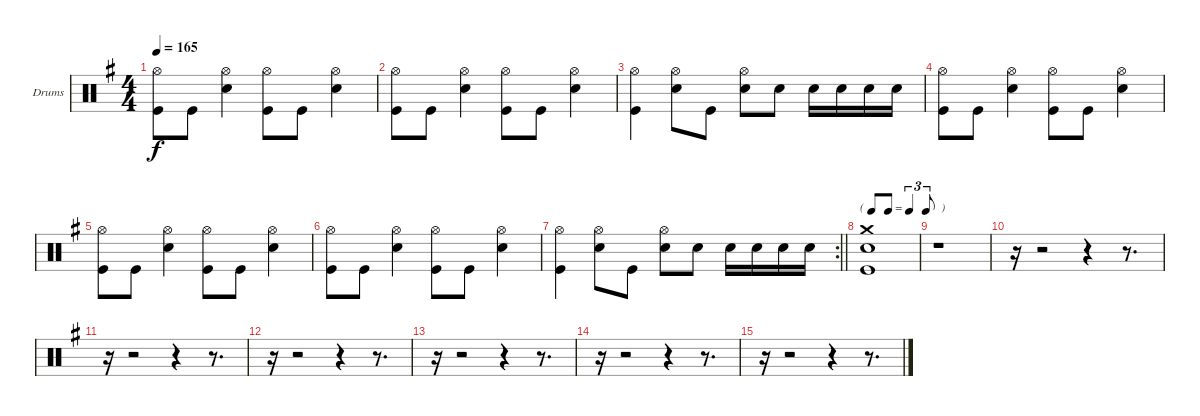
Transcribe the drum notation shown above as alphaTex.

\bracketExtendMode groupsimilarinstruments
\firstSystemTrackNameOrientation horizontal
\otherSystemsTrackNameOrientation horizontal
\track ("Drumkit" "Drums") {instrument percussion}
\staff {score}
\articulation defaults
\ts (4 4)
\tempo 165
\clef neutral
\ks eminor
("Hi-Hat (open)" "Kick (hit)").8{dy f} "Kick (hit)".8 ("Hi-Hat (open)" "Snare (hit) 2").4 ("Hi-Hat (open)" "Kick (hit)").8 "Kick (hit)".8 ("Hi-Hat (open)" "Snare (hit) 2").4 |
("Hi-Hat (open)" "Kick (hit)").8 "Kick (hit)".8 ("Hi-Hat (open)" "Snare (hit) 2").4 ("Hi-Hat (open)" "Kick (hit)").8 "Kick (hit)".8 ("Hi-Hat (open)" "Snare (hit) 2").4 |
("Hi-Hat (open)" "Kick (hit)").4 ("Hi-Hat (open)" "Snare (hit) 2").8 "Kick (hit)".8 ("Hi-Hat (open)" "Snare (hit) 2").8 "Snare (hit) 2".8 "Snare (hit) 2".16 "Snare (hit) 2".16 "Snare (hit) 2".16 "Snare (hit) 2".16 |
("Hi-Hat (open)" "Kick (hit)").8 "Kick (hit)".8 ("Hi-Hat (open)" "Snare (hit) 2").4 ("Hi-Hat (open)" "Kick (hit)").8 "Kick (hit)".8 ("Hi-Hat (open)" "Snare (hit) 2").4 |
("Hi-Hat (open)" "Kick (hit)").8 "Kick (hit)".8 ("Hi-Hat (open)" "Snare (hit) 2").4 ("Hi-Hat (open)" "Kick (hit)").8 "Kick (hit)".8 ("Hi-Hat (open)" "Snare (hit) 2").4 |
("Hi-Hat (open)" "Kick (hit)").8 "Kick (hit)".8 ("Hi-Hat (open)" "Snare (hit) 2").4 ("Hi-Hat (open)" "Kick (hit)").8 "Kick (hit)".8 ("Hi-Hat (open)" "Snare (hit) 2").4 |
\rc 2
\barLineRight lightlight
("Hi-Hat (open)" "Kick (hit)").4 ("Hi-Hat (open)" "Snare (hit) 2").8 "Kick (hit)".8 ("Hi-Hat (open)" "Snare (hit) 2").8 "Snare (hit) 2".8 "Snare (hit) 2".16 "Snare (hit) 2".16 "Snare (hit) 2".16 "Snare (hit) 2".16 |
\tf triplet8th
("Crash medium (hit)" "Snare (hit) 2" "Kick (hit)").1 |
r.1 |
r.16 r.2 r.4 r.8{d} |
r.16 r.2 r.4 r.8{d} |
r.16 r.2 r.4 r.8{d} |
r.16 r.2 r.4 r.8{d} |
r.16 r.2 r.4 r.8{d} |
r.16 r.2 r.4 r.8{d}
